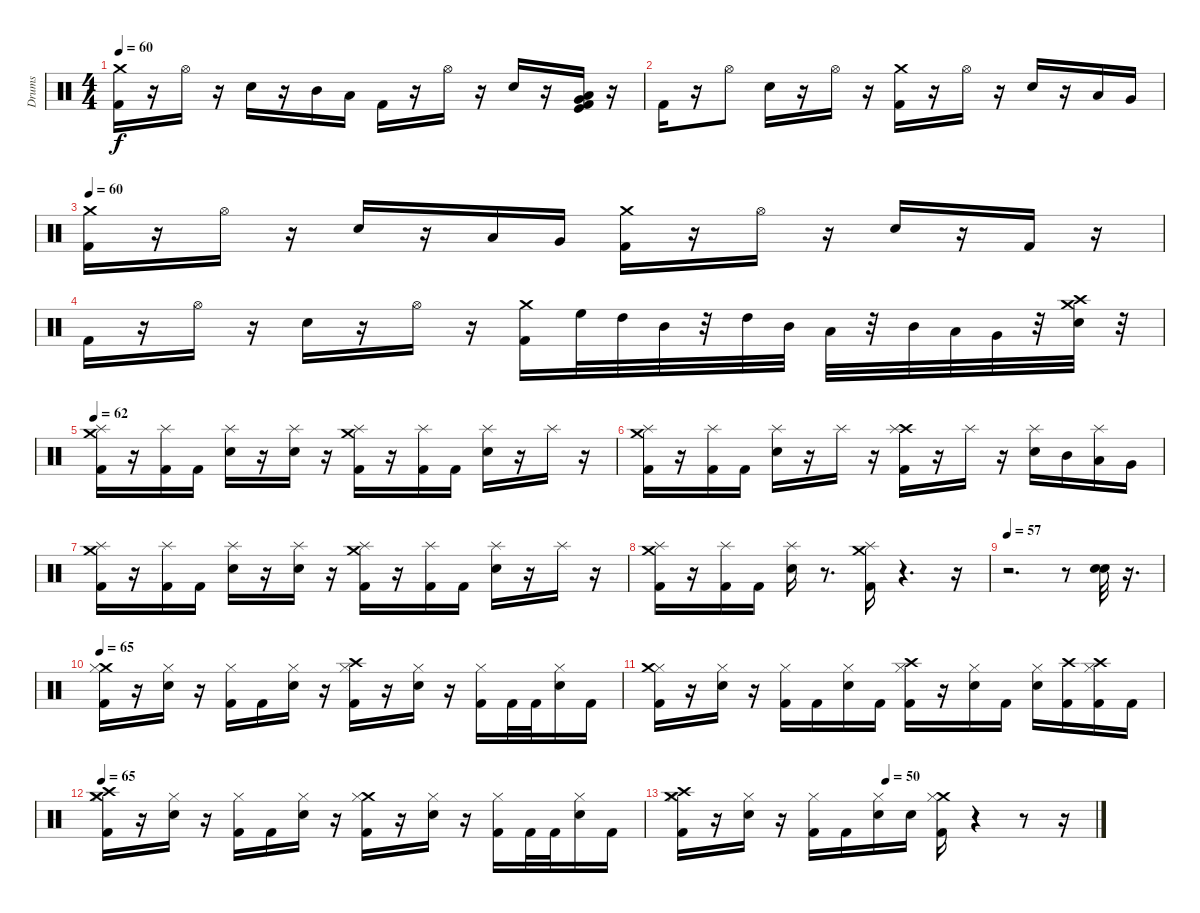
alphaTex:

\track ("Drums" "Drums") {instrument percussion}
\staff {score}
\articulation defaults
\ts (4 4)
\tempo 60
\clef neutral
\ks c
("Kick (hit) 2" "Crash medium (hit)").16{dy f} r.16 "Hi-Hat (open)".16 r.16 "Snare (hit) 2".16 r.16 "Mid Tom (hit)".16 "Low Tom (hit)".16 "Kick (hit) 2".16 r.16 "Hi-Hat (open)".16 r.16 "Snare (hit) 2".16 r.16 ("Low Tom (hit)" "Kick (hit)" "Kick (hit) 2" "Very Low Tom (hit)").16 r.16 |
"Kick (hit) 2".16 r.16 "Hi-Hat (open)".8 "Snare (hit) 2".16 r.16 "Hi-Hat (open)".16 r.16 ("Crash medium (hit)" "Kick (hit) 2").16 r.16 "Hi-Hat (open)".16 r.16 "Snare (hit) 2".16 r.16 "Low Tom (hit)".16 "Very Low Tom (hit)".16 |
\tempo 60
("Crash medium (hit)" "Kick (hit) 2").16 r.16 "Hi-Hat (open)".16 r.16 "Snare (hit) 2".16 r.16 "Low Tom (hit)".16 "Very Low Tom (hit)".16 ("Crash medium (hit)" "Kick (hit) 2").16 r.16 "Hi-Hat (open)".16 r.16 "Snare (hit) 2".16 r.16 "Kick (hit) 2".16 r.16 |
"Kick (hit) 2".16 r.16 "Hi-Hat (open)".16 r.16 "Snare (hit) 2".16 r.16 "Hi-Hat (open)".16 r.16 ("Kick (hit) 2" "Crash medium (hit)").16 "High Floor Tom (hit)".32 "High Tom (hit)".32 "Mid Tom (hit)".32 r.32 "High Tom (hit)".32 "Mid Tom (hit)".32 "Low Tom (hit)".32 r.32 "Mid Tom (hit)".32 "Low Tom (hit)".32 "Very Low Tom (hit)".32 r.32 ("Crash high (hit)" "Crash medium (hit)" "Electric Snare (hit)").32 r.32 |
\tempo 62
("Crash medium (hit)" "Kick (hit) 2" "Splash (hit)").16 r.16 ("Kick (hit) 2" "Splash (hit)").16 "Kick (hit) 2".16 ("Snare (hit) 2" "Splash (hit)").16 r.16 ("Snare (hit) 2" "Splash (hit)").16 r.16 ("Crash medium (hit)" "Kick (hit) 2" "Splash (hit)").16 r.16 ("Kick (hit) 2" "Splash (hit)").16 "Kick (hit) 2".16 ("Snare (hit) 2" "Splash (hit)").16 r.16 "Splash (hit)".16 r.16 |
("Kick (hit) 2" "Crash medium (hit)" "Splash (hit)").16 r.16 ("Kick (hit) 2" "Splash (hit)").16 "Kick (hit) 2".16 ("Snare (hit) 2" "Splash (hit)").16 r.16 "Splash (hit)".16 r.16 ("Crash high (hit)" "Kick (hit) 2" "Splash (hit)").16 r.16 "Splash (hit)".16 r.16 ("Snare (hit) 2" "Splash (hit)").16 "Mid Tom (hit)".16 ("Low Tom (hit)" "Splash (hit)").16 "Very Low Tom (hit)".16 |
("Crash medium (hit)" "Kick (hit) 2" "Splash (hit)").16 r.16 ("Kick (hit) 2" "Splash (hit)").16 "Kick (hit) 2".16 ("Snare (hit) 2" "Splash (hit)").16 r.16 ("Snare (hit) 2" "Splash (hit)").16 r.16 ("Crash medium (hit)" "Kick (hit) 2" "Splash (hit)").16 r.16 ("Kick (hit) 2" "Splash (hit)").16 "Kick (hit) 2".16 ("Snare (hit) 2" "Splash (hit)").16 r.16 "Splash (hit)".16 r.16 |
("Crash medium (hit)" "Kick (hit) 2" "Splash (hit)").16 r.16 ("Kick (hit) 2" "Splash (hit)").16 "Kick (hit) 2".16 ("Snare (hit) 2" "Splash (hit)").16 r.8{d} ("Crash medium (hit)" "Kick (hit) 2" "Splash (hit)").16 r.4{d} r.16 |
\tempo 57
r.2{d} r.8 ("Snare (hit) 2" "Electric Snare (hit)").32 r.16{d} |
\tempo 65
("Crash medium (hit)" "Hi-Hat (closed)" "Kick (hit) 2").16 r.16 ("Hi-Hat (closed)" "Snare (hit) 2").16 r.16 ("Hi-Hat (closed)" "Kick (hit) 2").16 "Kick (hit) 2".16 ("Hi-Hat (closed)" "Snare (hit) 2").16 r.16 ("Crash high (hit)" "Hi-Hat (closed)" "Kick (hit) 2").16 r.16 ("Hi-Hat (closed)" "Snare (hit) 2").16 r.16 ("Hi-Hat (closed)" "Kick (hit) 2").16 "Kick (hit) 2".32 "Kick (hit) 2".32 ("Hi-Hat (closed)" "Snare (hit) 2").16 "Kick (hit) 2".16 |
("Hi-Hat (closed)" "Crash medium (hit)" "Kick (hit) 2").16 r.16 ("Hi-Hat (closed)" "Snare (hit) 2").16 r.16 ("Hi-Hat (closed)" "Kick (hit) 2").16 "Kick (hit) 2".16 ("Hi-Hat (closed)" "Snare (hit) 2").16 "Kick (hit) 2".16 ("Hi-Hat (closed)" "Kick (hit) 2" "Crash high (hit)").16 r.16 ("Hi-Hat (closed)" "Snare (hit) 2").16 "Kick (hit) 2".16 ("Hi-Hat (closed)" "Snare (hit) 2").16 ("Crash high (hit)" "Kick (hit) 2").16 ("Crash high (hit)" "Hi-Hat (closed)" "Kick (hit) 2").16 "Kick (hit) 2".16 |
\tempo 65
("Crash high (hit)" "Crash medium (hit)" "Hi-Hat (closed)" "Kick (hit) 2").16 r.16 ("Hi-Hat (closed)" "Snare (hit) 2").16 r.16 ("Hi-Hat (closed)" "Kick (hit) 2").16 "Kick (hit) 2".16 ("Hi-Hat (closed)" "Snare (hit) 2").16 r.16 ("Crash medium (hit)" "Hi-Hat (closed)" "Kick (hit) 2").16 r.16 ("Hi-Hat (closed)" "Snare (hit) 2").16 r.16 ("Hi-Hat (closed)" "Kick (hit) 2").16 "Kick (hit) 2".32 "Kick (hit) 2".32 ("Hi-Hat (closed)" "Snare (hit) 2").16 "Kick (hit) 2".16 |
\tempo (50 0.5)
("Crash high (hit)" "Crash medium (hit)" "Hi-Hat (closed)" "Kick (hit) 2").16 r.16 ("Hi-Hat (closed)" "Snare (hit) 2").16 r.16 ("Hi-Hat (closed)" "Kick (hit) 2").16 "Kick (hit) 2".16 ("Hi-Hat (closed)" "Snare (hit) 2").16 "Snare (hit) 2".16 ("Crash medium (hit)" "Hi-Hat (closed)" "Kick (hit) 2").16 r.4 r.8 r.16
